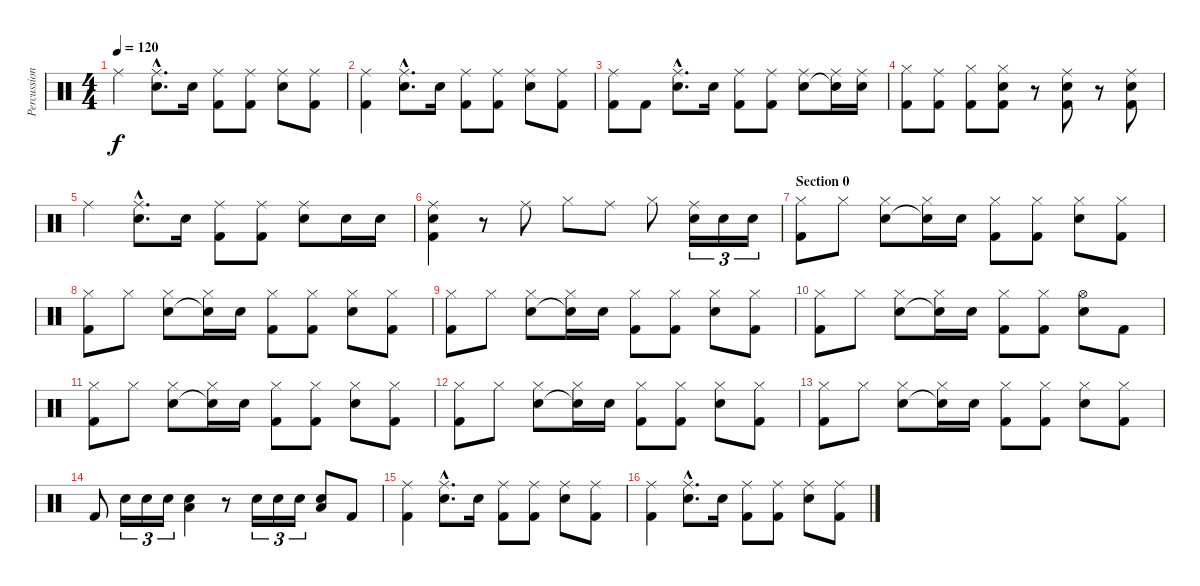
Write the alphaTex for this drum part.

\track ("Percussions" "Percussion") {instrument percussion}
\staff {score}
\articulation defaults
\ts (4 4)
\tempo 120
\clef neutral
\ks c "Ride (middle)".4{dy f}
("Ride (middle)"{hac} "Snare (hit) 2"{hac}).8{d} "Snare (hit) 2".16 ("Ride (middle)" "Kick (hit) 2").8 ("Ride (middle)" "Kick (hit) 2").8 ("Ride (middle)" "Snare (hit) 2").8 ("Ride (middle)" "Kick (hit) 2").8 |
("Ride (middle)" "Kick (hit) 2").4 ("Ride (middle)"{hac} "Snare (hit) 2"{hac}).8{d} "Snare (hit) 2".16 ("Ride (middle)" "Kick (hit) 2").8 ("Ride (middle)" "Kick (hit) 2").8 ("Ride (middle)" "Snare (hit) 2").8 ("Ride (middle)" "Kick (hit) 2").8 |
("Ride (middle)" "Kick (hit) 2").8 "Kick (hit) 2".8 ("Ride (middle)"{hac} "Snare (hit) 2"{hac}).8{d} "Snare (hit) 2".16 ("Ride (middle)" "Kick (hit) 2").8 ("Ride (middle)" "Kick (hit) 2").8 ("Ride (middle)" "Snare (hit) 2").8 ("Ride (middle)" "Snare (hit)"{t}).16 ("Ride (middle)" "Snare (hit) 2").16 |
("Hi-Hat (closed)" "Kick (hit) 2").8 ("Ride (middle)" "Kick (hit) 2").8 ("Hi-Hat (closed)" "Kick (hit) 2").8 ("Hi-Hat (closed)" "Snare (hit) 2" "Kick (hit) 2").8 r.8 ("Ride (middle)" "Snare (hit) 2" "Kick (hit) 2").8 r.8 ("Ride (middle)" "Snare (hit) 2" "Kick (hit) 2").8 |
"Ride (middle)".4 ("Ride (middle)"{hac} "Snare (hit) 2"{hac}).8{d} "Snare (hit) 2".16 ("Ride (middle)" "Kick (hit) 2").8 ("Ride (middle)" "Kick (hit) 2").8 ("Ride (middle)" "Snare (hit) 2").8 "Snare (hit) 2".16 "Snare (hit) 2".16 |
("Ride (middle)" "Snare (hit) 2" "Kick (hit) 2").4 r.8 "Ride (middle)".8 "Hi-Hat (closed)".8 "Ride (middle)".8 "Hi-Hat (closed)".8 ("Ride (middle)" "Snare (hit) 2").16{tu (3 2)} "Snare (hit) 2".16{tu (3 2)} "Snare (hit) 2".16{tu (3 2)} |
\section ("" "Section 0")
("Hi-Hat (closed)" "Kick (hit) 2").8 "Hi-Hat (closed)".8 ("Hi-Hat (closed)" "Snare (hit) 2").8 ("Hi-Hat (closed)" "Snare (hit)"{t}).16 "Snare (hit) 2".16 ("Hi-Hat (closed)" "Kick (hit) 2").8 ("Hi-Hat (closed)" "Kick (hit) 2").8 ("Hi-Hat (closed)" "Snare (hit) 2").8 ("Hi-Hat (closed)" "Kick (hit) 2").8 |
("Hi-Hat (closed)" "Kick (hit) 2").8 "Hi-Hat (closed)".8 ("Hi-Hat (closed)" "Snare (hit) 2").8 ("Hi-Hat (closed)" "Snare (hit)"{t}).16 "Snare (hit) 2".16 ("Hi-Hat (closed)" "Kick (hit) 2").8 ("Hi-Hat (closed)" "Kick (hit) 2").8 ("Hi-Hat (closed)" "Snare (hit) 2").8 ("Hi-Hat (closed)" "Kick (hit) 2").8 |
("Hi-Hat (closed)" "Kick (hit) 2").8 "Hi-Hat (closed)".8 ("Hi-Hat (closed)" "Snare (hit) 2").8 ("Hi-Hat (closed)" "Snare (hit)"{t}).16 "Snare (hit) 2".16 ("Hi-Hat (closed)" "Kick (hit) 2").8 ("Hi-Hat (closed)" "Kick (hit) 2").8 ("Hi-Hat (closed)" "Snare (hit) 2").8 ("Hi-Hat (closed)" "Kick (hit) 2").8 |
("Hi-Hat (closed)" "Kick (hit) 2").8 "Hi-Hat (closed)".8 ("Hi-Hat (closed)" "Snare (hit) 2").8 ("Hi-Hat (closed)" "Snare (hit)"{t}).16 "Snare (hit) 2".16 ("Hi-Hat (closed)" "Kick (hit) 2").8 ("Hi-Hat (closed)" "Kick (hit) 2").8 ("Hi-Hat (open)" "Snare (hit) 2").8 "Kick (hit) 2".8 |
("Hi-Hat (closed)" "Kick (hit) 2").8 "Hi-Hat (closed)".8 ("Hi-Hat (closed)" "Snare (hit) 2").8 ("Hi-Hat (closed)" "Snare (hit)"{t}).16 "Snare (hit) 2".16 ("Hi-Hat (closed)" "Kick (hit) 2").8 ("Hi-Hat (closed)" "Kick (hit) 2").8 ("Hi-Hat (closed)" "Snare (hit) 2").8 ("Hi-Hat (closed)" "Kick (hit) 2").8 |
("Hi-Hat (closed)" "Kick (hit) 2").8 "Hi-Hat (closed)".8 ("Hi-Hat (closed)" "Snare (hit) 2").8 ("Hi-Hat (closed)" "Snare (hit)"{t}).16 "Snare (hit) 2".16 ("Hi-Hat (closed)" "Kick (hit) 2").8 ("Hi-Hat (closed)" "Kick (hit) 2").8 ("Hi-Hat (closed)" "Snare (hit) 2").8 ("Hi-Hat (closed)" "Kick (hit) 2").8 |
("Hi-Hat (closed)" "Kick (hit) 2").8 "Hi-Hat (closed)".8 ("Hi-Hat (closed)" "Snare (hit) 2").8 ("Hi-Hat (closed)" "Snare (hit)"{t}).16 "Snare (hit) 2".16 ("Hi-Hat (closed)" "Kick (hit) 2").8 ("Hi-Hat (closed)" "Kick (hit) 2").8 ("Hi-Hat (closed)" "Snare (hit) 2").8 ("Hi-Hat (closed)" "Kick (hit) 2").8 |
"Kick (hit) 2".8 "Snare (hit) 2".16{tu (3 2)} "Snare (hit) 2".16{tu (3 2)} "Snare (hit) 2".16{tu (3 2)} ("Snare (hit) 2" "Low Floor Tom (hit)").4 r.8 "Snare (hit) 2".16{tu (3 2)} "Snare (hit) 2".16{tu (3 2)} "Snare (hit) 2".16{tu (3 2)} ("Snare (hit) 2" "Low Floor Tom (hit)").8 "Kick (hit) 2".8 |
("Ride (middle)" "Kick (hit) 2").4 ("Ride (middle)"{hac} "Snare (hit) 2"{hac}).8{d} "Snare (hit) 2".16 ("Ride (middle)" "Kick (hit) 2").8 ("Ride (middle)" "Kick (hit) 2").8 ("Ride (middle)" "Snare (hit) 2").8 ("Ride (middle)" "Kick (hit) 2").8 |
("Ride (middle)" "Kick (hit) 2").4 ("Ride (middle)"{hac} "Snare (hit) 2"{hac}).8{d} "Snare (hit) 2".16 ("Ride (middle)" "Kick (hit) 2").8 ("Ride (middle)" "Kick (hit) 2").8 ("Ride (middle)" "Snare (hit) 2").8 ("Ride (middle)" "Kick (hit) 2").8
